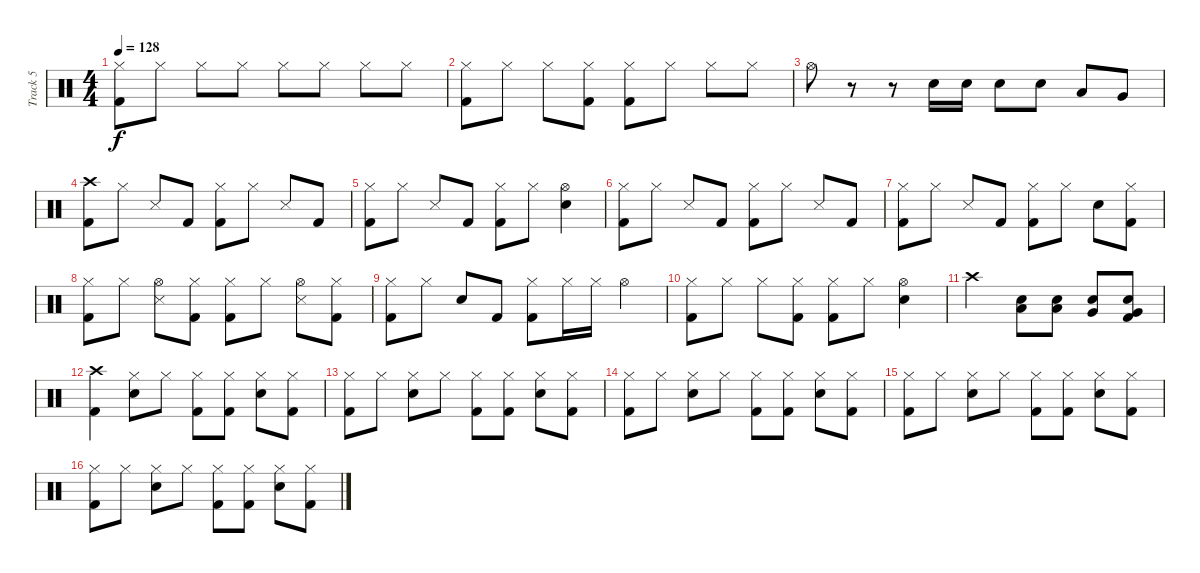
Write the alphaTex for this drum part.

\track ("Track 5" "Track 5") {instrument percussion}
\staff {score}
\articulation defaults
\ts (4 4)
\tempo 128
\clef neutral
\ks c
("Hi-Hat (closed)" "Kick (hit) 2").8{dy f} "Hi-Hat (closed)".8 "Hi-Hat (closed)".8 "Hi-Hat (closed)".8 "Hi-Hat (closed)".8 "Hi-Hat (closed)".8 "Hi-Hat (closed)".8 "Hi-Hat (closed)".8 |
("Hi-Hat (closed)" "Kick (hit) 2").8 "Hi-Hat (closed)".8 "Hi-Hat (closed)".8 ("Hi-Hat (closed)" "Kick (hit) 2").8 ("Hi-Hat (closed)" "Kick (hit) 2").8 "Hi-Hat (closed)".8 "Hi-Hat (closed)".8 "Hi-Hat (closed)".8 |
"Hi-Hat (open)".8 r.8 r.8 "Electric Snare (hit)".16 "Electric Snare (hit)".16 "Electric Snare (hit)".8 "Electric Snare (hit)".8 "Low Tom (hit)".8 "Very Low Tom (hit)".8 |
("Crash high (hit)" "Kick (hit) 2").8 "Hi-Hat (closed)".8 "Snare (side stick) 3".8 "Kick (hit) 2".8 ("Hi-Hat (closed)" "Kick (hit) 2").8 "Hi-Hat (closed)".8 "Snare (side stick) 3".8 "Kick (hit) 2".8 |
("Hi-Hat (closed)" "Kick (hit) 2").8 "Hi-Hat (closed)".8 "Snare (side stick) 3".8 "Kick (hit) 2".8 ("Hi-Hat (closed)" "Kick (hit) 2").8 "Hi-Hat (closed)".8 ("Hi-Hat (open)" "Electric Snare (hit)").4 |
("Hi-Hat (closed)" "Kick (hit) 2").8 "Hi-Hat (closed)".8 "Snare (side stick) 3".8 "Kick (hit) 2".8 ("Hi-Hat (closed)" "Kick (hit) 2").8 "Hi-Hat (closed)".8 "Snare (side stick) 3".8 "Kick (hit) 2".8 |
("Hi-Hat (closed)" "Kick (hit) 2").8 "Hi-Hat (closed)".8 "Snare (side stick) 3".8 "Kick (hit) 2".8 ("Hi-Hat (closed)" "Kick (hit) 2").8 "Hi-Hat (closed)".8 "Electric Snare (hit)".8 ("Hi-Hat (closed)" "Kick (hit) 2").8 |
("Hi-Hat (closed)" "Kick (hit) 2").8 "Hi-Hat (closed)".8 ("Hi-Hat (open)" "Snare (side stick) 3").8 ("Hi-Hat (closed)" "Kick (hit) 2").8 ("Hi-Hat (closed)" "Kick (hit) 2").8 "Hi-Hat (closed)".8 ("Hi-Hat (open)" "Snare (side stick) 3").8 ("Hi-Hat (closed)" "Kick (hit) 2").8 |
("Hi-Hat (closed)" "Kick (hit) 2").8 "Hi-Hat (closed)".8 "Electric Snare (hit)".8 "Kick (hit) 2".8 ("Hi-Hat (closed)" "Kick (hit) 2").8 "Hi-Hat (closed)".16 "Hi-Hat (closed)".16 "Hi-Hat (open)".4 |
("Hi-Hat (closed)" "Kick (hit) 2").8 "Hi-Hat (closed)".8 "Hi-Hat (closed)".8 ("Hi-Hat (closed)" "Kick (hit) 2").8 ("Hi-Hat (closed)" "Kick (hit) 2").8 "Hi-Hat (closed)".8 ("Hi-Hat (open)" "Electric Snare (hit)").4 |
"Crash high (hit)".2 ("Electric Snare (hit)" "Low Tom (hit)").8 ("Electric Snare (hit)" "Low Tom (hit)").8 ("Electric Snare (hit)" "Very Low Tom (hit)").8 ("Electric Snare (hit)" "Very Low Tom (hit)" "Kick (hit) 2").8 |
("Crash high (hit)" "Kick (hit) 2").4 ("Hi-Hat (closed)" "Electric Snare (hit)").8 "Hi-Hat (closed)".8 ("Hi-Hat (closed)" "Kick (hit) 2").8 ("Hi-Hat (closed)" "Kick (hit) 2").8 ("Hi-Hat (closed)" "Electric Snare (hit)").8 ("Hi-Hat (closed)" "Kick (hit) 2").8 |
("Hi-Hat (closed)" "Kick (hit) 2").8 "Hi-Hat (closed)".8 ("Hi-Hat (closed)" "Electric Snare (hit)").8 "Hi-Hat (closed)".8 ("Hi-Hat (closed)" "Kick (hit) 2").8 ("Hi-Hat (closed)" "Kick (hit) 2").8 ("Hi-Hat (closed)" "Electric Snare (hit)").8 ("Hi-Hat (closed)" "Kick (hit) 2").8 |
("Hi-Hat (closed)" "Kick (hit) 2").8 "Hi-Hat (closed)".8 ("Hi-Hat (closed)" "Electric Snare (hit)").8 "Hi-Hat (closed)".8 ("Hi-Hat (closed)" "Kick (hit) 2").8 ("Hi-Hat (closed)" "Kick (hit) 2").8 ("Hi-Hat (closed)" "Electric Snare (hit)").8 ("Hi-Hat (closed)" "Kick (hit) 2").8 |
("Hi-Hat (closed)" "Kick (hit) 2").8 "Hi-Hat (closed)".8 ("Hi-Hat (closed)" "Electric Snare (hit)").8 "Hi-Hat (closed)".8 ("Hi-Hat (closed)" "Kick (hit) 2").8 ("Hi-Hat (closed)" "Kick (hit) 2").8 ("Hi-Hat (closed)" "Electric Snare (hit)").8 ("Hi-Hat (closed)" "Kick (hit) 2").8 |
("Hi-Hat (closed)" "Kick (hit) 2").8 "Hi-Hat (closed)".8 ("Hi-Hat (closed)" "Electric Snare (hit)").8 "Hi-Hat (closed)".8 ("Hi-Hat (closed)" "Kick (hit) 2").8 ("Hi-Hat (closed)" "Kick (hit) 2").8 ("Hi-Hat (closed)" "Electric Snare (hit)").8 ("Hi-Hat (closed)" "Kick (hit) 2").8
